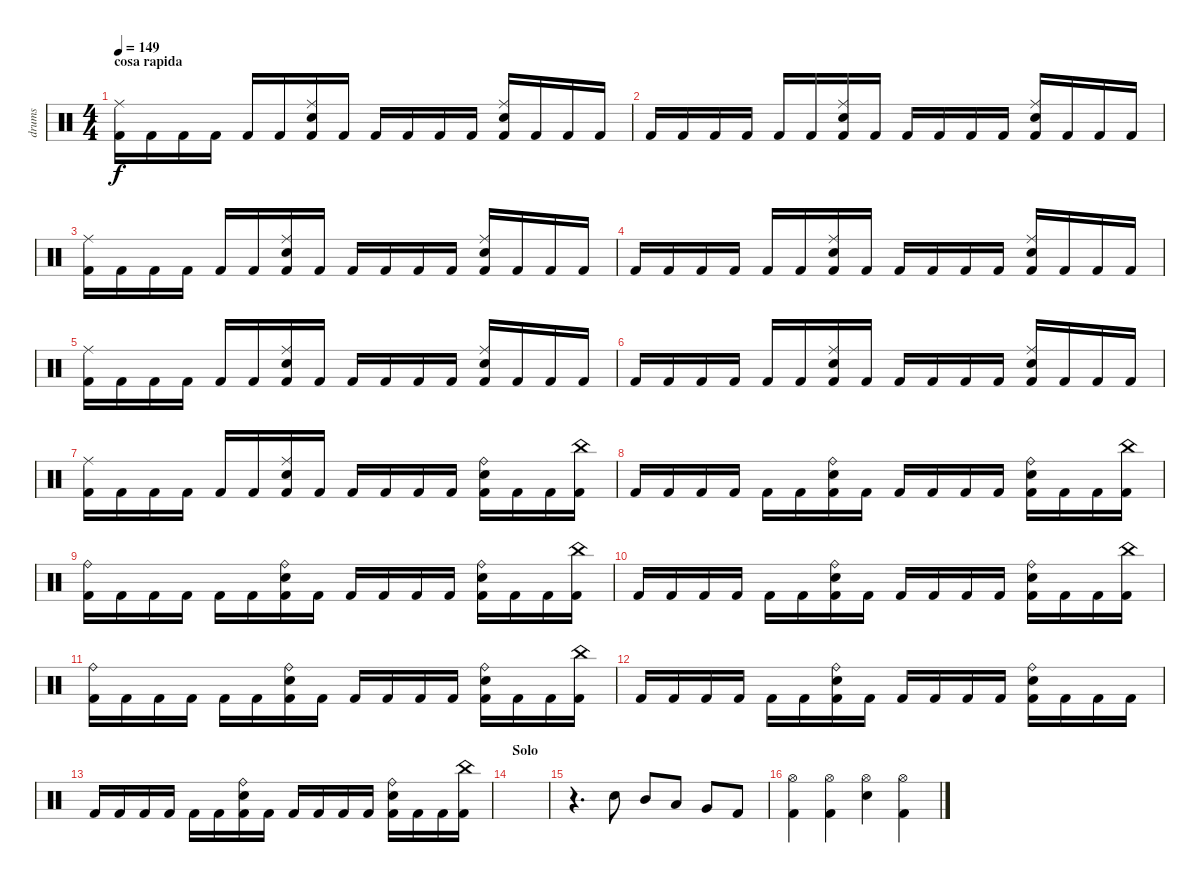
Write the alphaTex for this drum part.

\track ("drums" "drums") {instrument percussion}
\staff {score}
\articulation defaults
\ts (4 4)
\section ("" "cosa rapida")
\tempo 149
\clef neutral
\ks c
("Kick (hit) 2" "Ride (middle)").16{dy f} "Kick (hit) 2".16 "Kick (hit) 2".16 "Kick (hit) 2".16 "Kick (hit) 2".16 "Kick (hit) 2".16 ("Kick (hit) 2" "Electric Snare (hit)" "Ride (middle)").16 "Kick (hit) 2".16 "Kick (hit) 2".16 "Kick (hit) 2".16 "Kick (hit) 2".16 "Kick (hit) 2".16 ("Kick (hit) 2" "Electric Snare (hit)" "Ride (middle)").16 "Kick (hit) 2".16 "Kick (hit) 2".16 "Kick (hit) 2".16 |
"Kick (hit) 2".16 "Kick (hit) 2".16 "Kick (hit) 2".16 "Kick (hit) 2".16 "Kick (hit) 2".16 "Kick (hit) 2".16 ("Kick (hit) 2" "Electric Snare (hit)" "Ride (middle)").16 "Kick (hit) 2".16 "Kick (hit) 2".16 "Kick (hit) 2".16 "Kick (hit) 2".16 "Kick (hit) 2".16 ("Kick (hit) 2" "Electric Snare (hit)" "Ride (middle)").16 "Kick (hit) 2".16 "Kick (hit) 2".16 "Kick (hit) 2".16 |
("Kick (hit) 2" "Ride (middle)").16 "Kick (hit) 2".16 "Kick (hit) 2".16 "Kick (hit) 2".16 "Kick (hit) 2".16 "Kick (hit) 2".16 ("Kick (hit) 2" "Electric Snare (hit)" "Ride (middle)").16 "Kick (hit) 2".16 "Kick (hit) 2".16 "Kick (hit) 2".16 "Kick (hit) 2".16 "Kick (hit) 2".16 ("Kick (hit) 2" "Electric Snare (hit)" "Ride (middle)").16 "Kick (hit) 2".16 "Kick (hit) 2".16 "Kick (hit) 2".16 |
"Kick (hit) 2".16 "Kick (hit) 2".16 "Kick (hit) 2".16 "Kick (hit) 2".16 "Kick (hit) 2".16 "Kick (hit) 2".16 ("Kick (hit) 2" "Electric Snare (hit)" "Ride (middle)").16 "Kick (hit) 2".16 "Kick (hit) 2".16 "Kick (hit) 2".16 "Kick (hit) 2".16 "Kick (hit) 2".16 ("Kick (hit) 2" "Electric Snare (hit)" "Ride (middle)").16 "Kick (hit) 2".16 "Kick (hit) 2".16 "Kick (hit) 2".16 |
("Kick (hit) 2" "Ride (middle)").16 "Kick (hit) 2".16 "Kick (hit) 2".16 "Kick (hit) 2".16 "Kick (hit) 2".16 "Kick (hit) 2".16 ("Kick (hit) 2" "Electric Snare (hit)" "Ride (middle)").16 "Kick (hit) 2".16 "Kick (hit) 2".16 "Kick (hit) 2".16 "Kick (hit) 2".16 "Kick (hit) 2".16 ("Kick (hit) 2" "Electric Snare (hit)" "Ride (middle)").16 "Kick (hit) 2".16 "Kick (hit) 2".16 "Kick (hit) 2".16 |
"Kick (hit) 2".16 "Kick (hit) 2".16 "Kick (hit) 2".16 "Kick (hit) 2".16 "Kick (hit) 2".16 "Kick (hit) 2".16 ("Kick (hit) 2" "Electric Snare (hit)" "Ride (middle)").16 "Kick (hit) 2".16 "Kick (hit) 2".16 "Kick (hit) 2".16 "Kick (hit) 2".16 "Kick (hit) 2".16 ("Kick (hit) 2" "Electric Snare (hit)" "Ride (middle)").16 "Kick (hit) 2".16 "Kick (hit) 2".16 "Kick (hit) 2".16 |
("Kick (hit) 2" "Ride (middle)").16 "Kick (hit) 2".16 "Kick (hit) 2".16 "Kick (hit) 2".16 "Kick (hit) 2".16 "Kick (hit) 2".16 ("Kick (hit) 2" "Electric Snare (hit)" "Ride (middle)").16 "Kick (hit) 2".16 "Kick (hit) 2".16 "Kick (hit) 2".16 "Kick (hit) 2".16 "Kick (hit) 2".16 ("Kick (hit) 2" "Electric Snare (hit)" "Ride (bell)").16 "Kick (hit) 2".16 "Kick (hit) 2".16 ("Kick (hit) 2" "China (hit)").16 |
"Kick (hit) 2".16 "Kick (hit) 2".16 "Kick (hit) 2".16 "Kick (hit) 2".16 "Kick (hit) 2".16 "Kick (hit) 2".16 ("Kick (hit) 2" "Electric Snare (hit)" "Ride (bell)").16 "Kick (hit) 2".16 "Kick (hit) 2".16 "Kick (hit) 2".16 "Kick (hit) 2".16 "Kick (hit) 2".16 ("Kick (hit) 2" "Electric Snare (hit)" "Ride (bell)").16 "Kick (hit) 2".16 "Kick (hit) 2".16 ("Kick (hit) 2" "China (hit)").16 |
("Kick (hit) 2" "Ride (bell)").16 "Kick (hit) 2".16 "Kick (hit) 2".16 "Kick (hit) 2".16 "Kick (hit) 2".16 "Kick (hit) 2".16 ("Kick (hit) 2" "Electric Snare (hit)" "Ride (bell)").16 "Kick (hit) 2".16 "Kick (hit) 2".16 "Kick (hit) 2".16 "Kick (hit) 2".16 "Kick (hit) 2".16 ("Kick (hit) 2" "Electric Snare (hit)" "Ride (bell)").16 "Kick (hit) 2".16 "Kick (hit) 2".16 ("Kick (hit) 2" "China (hit)").16 |
"Kick (hit) 2".16 "Kick (hit) 2".16 "Kick (hit) 2".16 "Kick (hit) 2".16 "Kick (hit) 2".16 "Kick (hit) 2".16 ("Kick (hit) 2" "Electric Snare (hit)" "Ride (bell)").16 "Kick (hit) 2".16 "Kick (hit) 2".16 "Kick (hit) 2".16 "Kick (hit) 2".16 "Kick (hit) 2".16 ("Kick (hit) 2" "Electric Snare (hit)" "Ride (bell)").16 "Kick (hit) 2".16 "Kick (hit) 2".16 ("Kick (hit) 2" "China (hit)").16 |
("Kick (hit) 2" "Ride (bell)").16 "Kick (hit) 2".16 "Kick (hit) 2".16 "Kick (hit) 2".16 "Kick (hit) 2".16 "Kick (hit) 2".16 ("Kick (hit) 2" "Electric Snare (hit)" "Ride (bell)").16 "Kick (hit) 2".16 "Kick (hit) 2".16 "Kick (hit) 2".16 "Kick (hit) 2".16 "Kick (hit) 2".16 ("Kick (hit) 2" "Electric Snare (hit)" "Ride (bell)").16 "Kick (hit) 2".16 "Kick (hit) 2".16 ("Kick (hit) 2" "China (hit)").16 |
"Kick (hit) 2".16 "Kick (hit) 2".16 "Kick (hit) 2".16 "Kick (hit) 2".16 "Kick (hit) 2".16 "Kick (hit) 2".16 ("Kick (hit) 2" "Electric Snare (hit)" "Ride (bell)").16 "Kick (hit) 2".16 "Kick (hit) 2".16 "Kick (hit) 2".16 "Kick (hit) 2".16 "Kick (hit) 2".16 ("Kick (hit) 2" "Electric Snare (hit)" "Ride (bell)").16 "Kick (hit) 2".16 "Kick (hit) 2".16 "Kick (hit) 2".16 |
"Kick (hit) 2".16 "Kick (hit) 2".16 "Kick (hit) 2".16 "Kick (hit) 2".16 "Kick (hit) 2".16 "Kick (hit) 2".16 ("Kick (hit) 2" "Electric Snare (hit)" "Ride (bell)").16 "Kick (hit) 2".16 "Kick (hit) 2".16 "Kick (hit) 2".16 "Kick (hit) 2".16 "Kick (hit) 2".16 ("Kick (hit) 2" "Electric Snare (hit)" "Ride (bell)").16 "Kick (hit) 2".16 "Kick (hit) 2".16 ("Kick (hit) 2" "China (hit)").16 |
\section ("" "Solo")
|
r.4{d} "Electric Snare (hit)".8 "Mid Tom (hit)".8 "Low Tom (hit)".8 "Very Low Tom (hit)".8 "Kick (hit) 2".8 |
("Kick (hit) 2" "Hi-Hat (open)").4 ("Kick (hit) 2" "Hi-Hat (open)").4 ("Electric Snare (hit)" "Hi-Hat (open)").4 ("Kick (hit) 2" "Hi-Hat (open)").4
